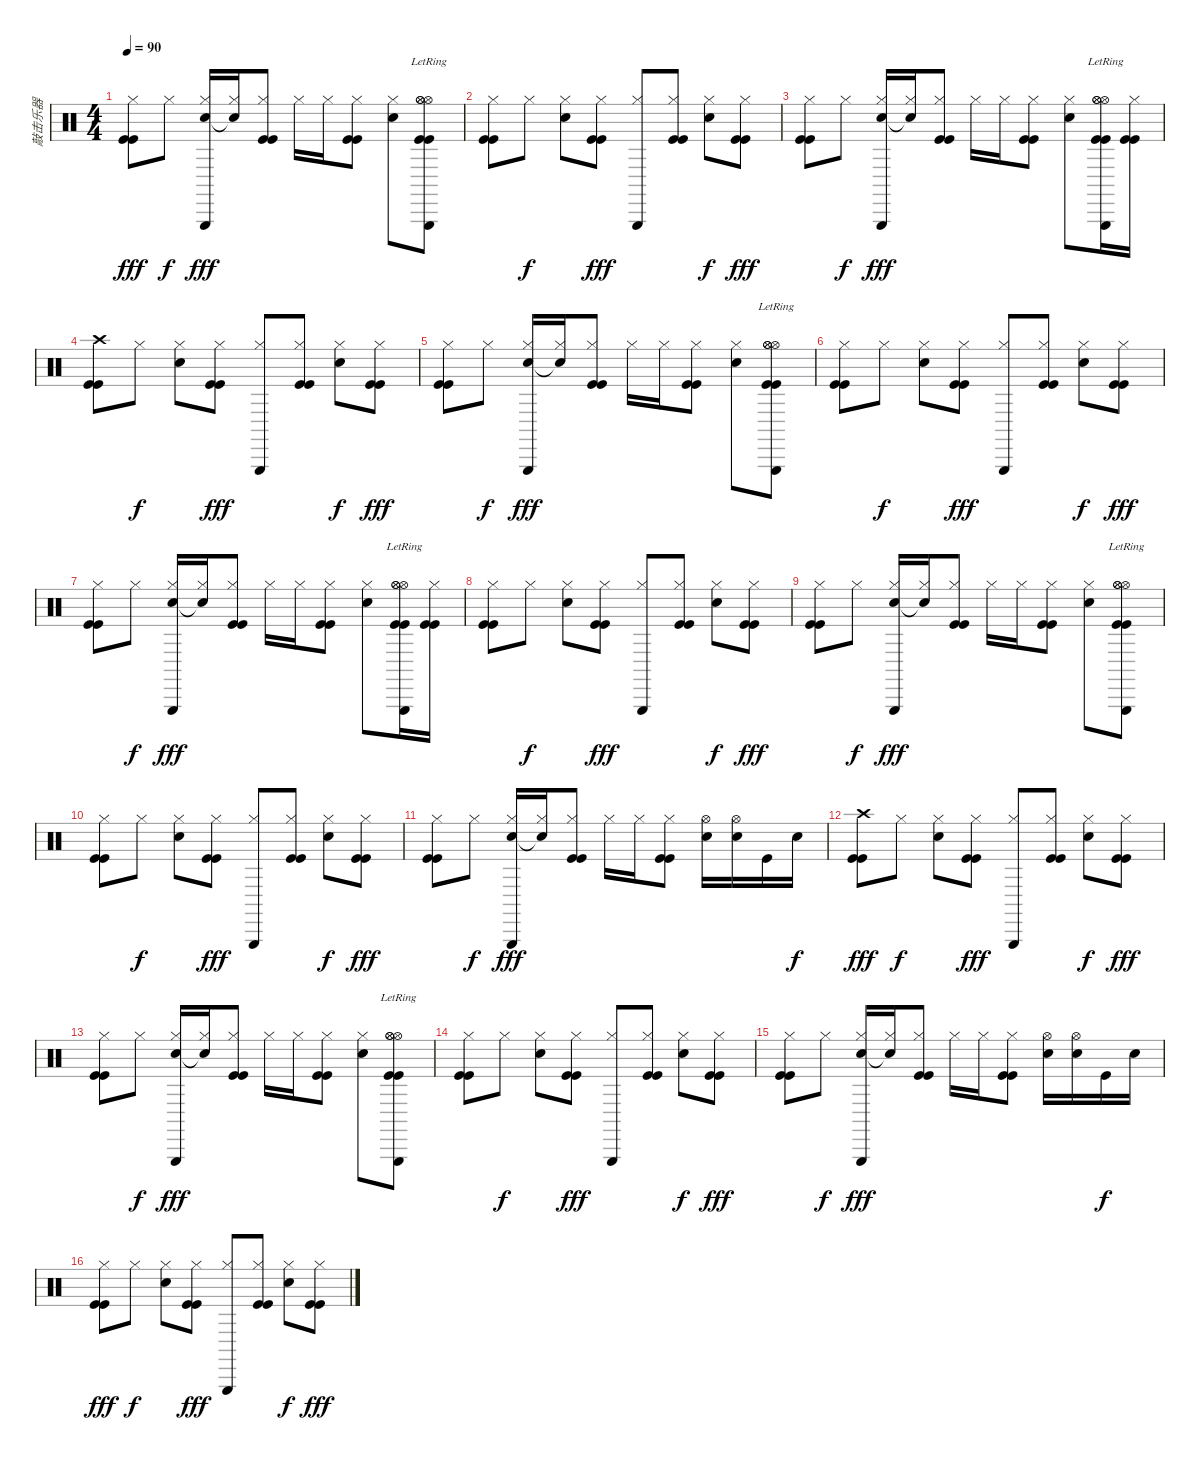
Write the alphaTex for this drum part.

\track ("敲击乐器" "敲击乐器") {instrument percussion}
\staff {score}
\articulation defaults
\ts (4 4)
\tempo 90
\clef neutral
\ks c
("Hi-Hat (closed)" "Kick (hit)" "Kick (hit)").8{dy fff} "Hi-Hat (closed)".8{dy f} ("Hi-Hat (closed)" "Electric Snare (hit)" "Triangle (hit)").16{dy fff} ("Hi-Hat (closed)" "Snare (hit)"{t}).16 ("Hi-Hat (closed)" "Kick (hit)" "Kick (hit)").8 "Hi-Hat (closed)".16 "Hi-Hat (closed)".16 ("Hi-Hat (closed)" "Kick (hit)" "Kick (hit)").8 ("Hi-Hat (closed)" "Electric Snare (hit)").8 ("Hi-Hat (open)" "Hi-Hat (open)" "Hi-Hat (open)" "Triangle (hit)"{lr} "Kick (hit)" "Kick (hit)").8 |
("Hi-Hat (closed)" "Kick (hit)" "Kick (hit)").8 "Hi-Hat (closed)".8{dy f} ("Hi-Hat (closed)" "Electric Snare (hit)").8 ("Hi-Hat (closed)" "Kick (hit)" "Kick (hit)").8{dy fff} ("Hi-Hat (closed)" "Triangle (hit)").8 ("Hi-Hat (closed)" "Kick (hit)" "Kick (hit)").8 ("Hi-Hat (closed)" "Electric Snare (hit)").8{dy f} ("Hi-Hat (closed)" "Kick (hit)" "Kick (hit)").8{dy fff} |
("Hi-Hat (closed)" "Kick (hit)" "Kick (hit)").8 "Hi-Hat (closed)".8{dy f} ("Hi-Hat (closed)" "Electric Snare (hit)" "Triangle (hit)").16{dy fff} ("Hi-Hat (closed)" "Snare (hit)"{t}).16 ("Hi-Hat (closed)" "Kick (hit)" "Kick (hit)").8 "Hi-Hat (closed)".16 "Hi-Hat (closed)".16 ("Hi-Hat (closed)" "Kick (hit)" "Kick (hit)").8 ("Hi-Hat (closed)" "Electric Snare (hit)").8 ("Hi-Hat (open)" "Hi-Hat (open)" "Hi-Hat (open)" "Triangle (hit)"{lr} "Kick (hit)" "Kick (hit)").16 ("Hi-Hat (closed)" "Kick (hit)" "Kick (hit)").16 |
("Crash high (hit)" "Kick (hit)" "Kick (hit)").8 "Hi-Hat (closed)".8{dy f} ("Hi-Hat (closed)" "Electric Snare (hit)").8 ("Hi-Hat (closed)" "Kick (hit)" "Kick (hit)").8{dy fff} ("Hi-Hat (closed)" "Triangle (hit)").8 ("Hi-Hat (closed)" "Kick (hit)" "Kick (hit)").8 ("Hi-Hat (closed)" "Electric Snare (hit)").8{dy f} ("Hi-Hat (closed)" "Kick (hit)" "Kick (hit)").8{dy fff} |
("Hi-Hat (closed)" "Kick (hit)" "Kick (hit)").8 "Hi-Hat (closed)".8{dy f} ("Hi-Hat (closed)" "Electric Snare (hit)" "Triangle (hit)").16{dy fff} ("Hi-Hat (closed)" "Snare (hit)"{t}).16 ("Hi-Hat (closed)" "Kick (hit)" "Kick (hit)").8 "Hi-Hat (closed)".16 "Hi-Hat (closed)".16 ("Hi-Hat (closed)" "Kick (hit)" "Kick (hit)").8 ("Hi-Hat (closed)" "Electric Snare (hit)").8 ("Hi-Hat (open)" "Hi-Hat (open)" "Hi-Hat (open)" "Triangle (hit)"{lr} "Kick (hit)" "Kick (hit)").8 |
("Hi-Hat (closed)" "Kick (hit)" "Kick (hit)").8 "Hi-Hat (closed)".8{dy f} ("Hi-Hat (closed)" "Electric Snare (hit)").8 ("Hi-Hat (closed)" "Kick (hit)" "Kick (hit)").8{dy fff} ("Hi-Hat (closed)" "Triangle (hit)").8 ("Hi-Hat (closed)" "Kick (hit)" "Kick (hit)").8 ("Hi-Hat (closed)" "Electric Snare (hit)").8{dy f} ("Hi-Hat (closed)" "Kick (hit)" "Kick (hit)").8{dy fff} |
("Hi-Hat (closed)" "Kick (hit)" "Kick (hit)").8 "Hi-Hat (closed)".8{dy f} ("Hi-Hat (closed)" "Electric Snare (hit)" "Triangle (hit)").16{dy fff} ("Hi-Hat (closed)" "Snare (hit)"{t}).16 ("Hi-Hat (closed)" "Kick (hit)" "Kick (hit)").8 "Hi-Hat (closed)".16 "Hi-Hat (closed)".16 ("Hi-Hat (closed)" "Kick (hit)" "Kick (hit)").8 ("Hi-Hat (closed)" "Electric Snare (hit)").8 ("Hi-Hat (open)" "Hi-Hat (open)" "Hi-Hat (open)" "Triangle (hit)"{lr} "Kick (hit)" "Kick (hit)").16 ("Hi-Hat (closed)" "Kick (hit)" "Kick (hit)").16 |
("Hi-Hat (closed)" "Kick (hit)" "Kick (hit)").8 "Hi-Hat (closed)".8{dy f} ("Hi-Hat (closed)" "Electric Snare (hit)").8 ("Hi-Hat (closed)" "Kick (hit)" "Kick (hit)").8{dy fff} ("Hi-Hat (closed)" "Triangle (hit)").8 ("Hi-Hat (closed)" "Kick (hit)" "Kick (hit)").8 ("Hi-Hat (closed)" "Electric Snare (hit)").8{dy f} ("Hi-Hat (closed)" "Kick (hit)" "Kick (hit)").8{dy fff} |
("Hi-Hat (closed)" "Kick (hit)" "Kick (hit)").8 "Hi-Hat (closed)".8{dy f} ("Hi-Hat (closed)" "Electric Snare (hit)" "Triangle (hit)").16{dy fff} ("Hi-Hat (closed)" "Snare (hit)"{t}).16 ("Hi-Hat (closed)" "Kick (hit)" "Kick (hit)").8 "Hi-Hat (closed)".16 "Hi-Hat (closed)".16 ("Hi-Hat (closed)" "Kick (hit)" "Kick (hit)").8 ("Hi-Hat (closed)" "Electric Snare (hit)").8 ("Hi-Hat (open)" "Hi-Hat (open)" "Hi-Hat (open)" "Triangle (hit)"{lr} "Kick (hit)" "Kick (hit)").8 |
("Hi-Hat (closed)" "Kick (hit)" "Kick (hit)").8 "Hi-Hat (closed)".8{dy f} ("Hi-Hat (closed)" "Electric Snare (hit)").8 ("Hi-Hat (closed)" "Kick (hit)" "Kick (hit)").8{dy fff} ("Hi-Hat (closed)" "Triangle (hit)").8 ("Hi-Hat (closed)" "Kick (hit)" "Kick (hit)").8 ("Hi-Hat (closed)" "Electric Snare (hit)").8{dy f} ("Hi-Hat (closed)" "Kick (hit)" "Kick (hit)").8{dy fff} |
("Hi-Hat (closed)" "Kick (hit)" "Kick (hit)").8 "Hi-Hat (closed)".8{dy f} ("Hi-Hat (closed)" "Electric Snare (hit)" "Triangle (hit)").16{dy fff} ("Hi-Hat (closed)" "Snare (hit)"{t}).16 ("Hi-Hat (closed)" "Kick (hit)" "Kick (hit)").8 "Hi-Hat (closed)".16 "Hi-Hat (closed)".16 ("Hi-Hat (closed)" "Kick (hit)" "Kick (hit)").8 ("Hi-Hat (open)" "Electric Snare (hit)").16 ("Hi-Hat (open)" "Electric Snare (hit)").16 "Kick (hit)".16 "Electric Snare (hit)".16{dy f} |
("Crash high (hit)" "Kick (hit)" "Kick (hit)").8{dy fff} "Hi-Hat (closed)".8{dy f} ("Hi-Hat (closed)" "Electric Snare (hit)").8 ("Hi-Hat (closed)" "Kick (hit)" "Kick (hit)").8{dy fff} ("Hi-Hat (closed)" "Triangle (hit)").8 ("Hi-Hat (closed)" "Kick (hit)" "Kick (hit)").8 ("Hi-Hat (closed)" "Electric Snare (hit)").8{dy f} ("Hi-Hat (closed)" "Kick (hit)" "Kick (hit)").8{dy fff} |
("Hi-Hat (closed)" "Kick (hit)" "Kick (hit)").8 "Hi-Hat (closed)".8{dy f} ("Hi-Hat (closed)" "Electric Snare (hit)" "Triangle (hit)").16{dy fff} ("Hi-Hat (closed)" "Snare (hit)"{t}).16 ("Hi-Hat (closed)" "Kick (hit)" "Kick (hit)").8 "Hi-Hat (closed)".16 "Hi-Hat (closed)".16 ("Hi-Hat (closed)" "Kick (hit)" "Kick (hit)").8 ("Hi-Hat (closed)" "Electric Snare (hit)").8 ("Hi-Hat (open)" "Hi-Hat (open)" "Hi-Hat (open)" "Triangle (hit)"{lr} "Kick (hit)" "Kick (hit)").8 |
("Hi-Hat (closed)" "Kick (hit)" "Kick (hit)").8 "Hi-Hat (closed)".8{dy f} ("Hi-Hat (closed)" "Electric Snare (hit)").8 ("Hi-Hat (closed)" "Kick (hit)" "Kick (hit)").8{dy fff} ("Hi-Hat (closed)" "Triangle (hit)").8 ("Hi-Hat (closed)" "Kick (hit)" "Kick (hit)").8 ("Hi-Hat (closed)" "Electric Snare (hit)").8{dy f} ("Hi-Hat (closed)" "Kick (hit)" "Kick (hit)").8{dy fff} |
("Hi-Hat (closed)" "Kick (hit)" "Kick (hit)").8 "Hi-Hat (closed)".8{dy f} ("Hi-Hat (closed)" "Electric Snare (hit)" "Triangle (hit)").16{dy fff} ("Hi-Hat (closed)" "Snare (hit)"{t}).16 ("Hi-Hat (closed)" "Kick (hit)" "Kick (hit)").8 "Hi-Hat (closed)".16 "Hi-Hat (closed)".16 ("Hi-Hat (closed)" "Kick (hit)" "Kick (hit)").8 ("Hi-Hat (open)" "Electric Snare (hit)").16 ("Hi-Hat (open)" "Electric Snare (hit)").16 "Kick (hit)".16{dy f} "Electric Snare (hit)".16 |
("Hi-Hat (closed)" "Kick (hit)" "Kick (hit)").8{dy fff} "Hi-Hat (closed)".8{dy f} ("Hi-Hat (closed)" "Electric Snare (hit)").8 ("Hi-Hat (closed)" "Kick (hit)" "Kick (hit)").8{dy fff} ("Hi-Hat (closed)" "Triangle (hit)").8 ("Hi-Hat (closed)" "Kick (hit)" "Kick (hit)").8 ("Hi-Hat (closed)" "Electric Snare (hit)").8{dy f} ("Hi-Hat (closed)" "Kick (hit)" "Kick (hit)").8{dy fff}
